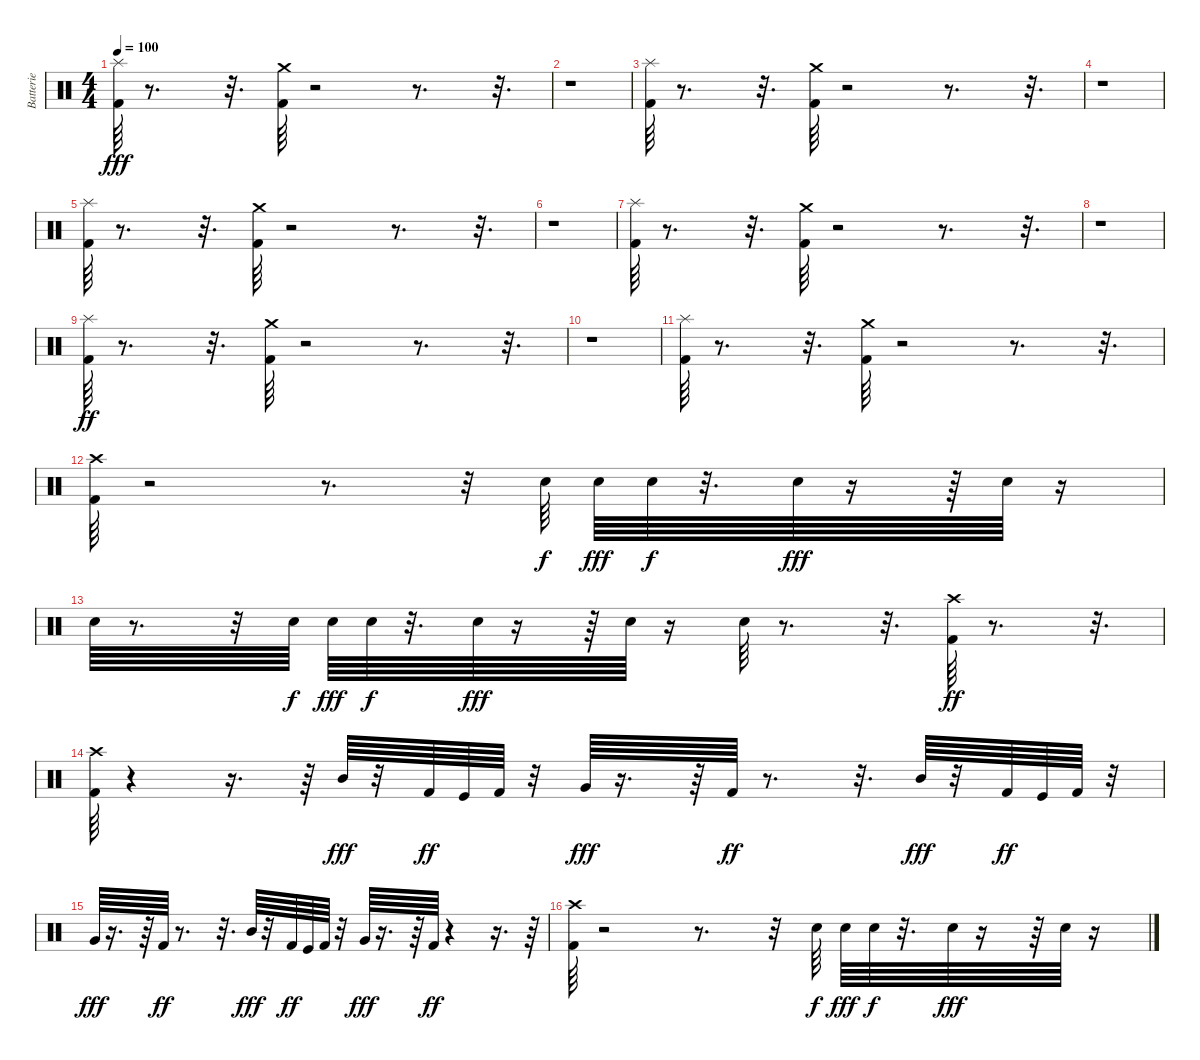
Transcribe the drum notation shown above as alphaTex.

\track ("Batterie" "Batterie") {instrument percussion}
\staff {score}
\articulation defaults
\ts (4 4)
\tempo 100
\clef neutral
\ks c
("Kick (hit) 2" "Splash (hit)").64{dy fff} r.8{d} r.32{d} ("Kick (hit) 2" "Crash medium (hit)").64 r.2 r.8{d} r.32{d} |
r.1 |
("Kick (hit) 2" "Splash (hit)").64 r.8{d} r.32{d} ("Kick (hit) 2" "Crash medium (hit)").64 r.2 r.8{d} r.32{d} |
r.1 |
("Kick (hit) 2" "Splash (hit)").64 r.8{d} r.32{d} ("Kick (hit) 2" "Crash medium (hit)").64 r.2 r.8{d} r.32{d} |
r.1 |
("Kick (hit) 2" "Splash (hit)").64 r.8{d} r.32{d} ("Kick (hit) 2" "Crash medium (hit)").64 r.2 r.8{d} r.32{d} |
r.1 |
("Splash (hit)" "Kick (hit) 2").64{dy ff} r.8{d} r.32{d} ("Crash medium (hit)" "Kick (hit) 2").64 r.2 r.8{d} r.32{d} |
r.1 |
("Splash (hit)" "Kick (hit) 2").64 r.8{d} r.32{d} ("Crash medium (hit)" "Kick (hit) 2").64 r.2 r.8{d} r.32{d} |
("Crash high (hit)" "Kick (hit) 2").64 r.2 r.8{d} r.32 "Snare (hit) 2".64{dy f} "Snare (hit) 2".64{dy fff} "Snare (hit) 2".64{dy f} r.32{d} "Snare (hit) 2".64{dy fff} r.16 r.64 "Snare (hit) 2".64 r.16 |
"Snare (hit) 2".64 r.8{d} r.32 "Snare (hit) 2".64{dy f} "Snare (hit) 2".64{dy fff} "Snare (hit) 2".64{dy f} r.32{d} "Snare (hit) 2".64{dy fff} r.16 r.64 "Snare (hit) 2".64 r.16 "Snare (hit) 2".64 r.8{d} r.32{d} ("Crash high (hit)" "Kick (hit) 2").64{dy ff} r.8{d} r.32{d} |
("Crash high (hit)" "Kick (hit) 2").64 r.4 r.16{d} r.64 "Mid Tom (hit)".64{dy fff} r.32 "Kick (hit) 2".64{dy ff} "Kick (hit)".64 "Kick (hit) 2".64 r.32 "Very Low Tom (hit)".64{dy fff} r.16{d} r.64 "Kick (hit) 2".64{dy ff} r.8{d} r.32{d} "Mid Tom (hit)".64{dy fff} r.32 "Kick (hit) 2".64{dy ff} "Kick (hit)".64 "Kick (hit) 2".64 r.32 |
"Very Low Tom (hit)".64{dy fff} r.16{d} r.64 "Kick (hit) 2".64{dy ff} r.8{d} r.32{d} "Mid Tom (hit)".64{dy fff} r.32 "Kick (hit) 2".64{dy ff} "Kick (hit)".64 "Kick (hit) 2".64 r.32 "Very Low Tom (hit)".64{dy fff} r.16{d} r.64 "Kick (hit) 2".64{dy ff} r.4 r.16{d} r.64 |
("Crash high (hit)" "Kick (hit) 2").64 r.2 r.8{d} r.32 "Snare (hit) 2".64{dy f} "Snare (hit) 2".64{dy fff} "Snare (hit) 2".64{dy f} r.32{d} "Snare (hit) 2".64{dy fff} r.16 r.64 "Snare (hit) 2".64 r.16
